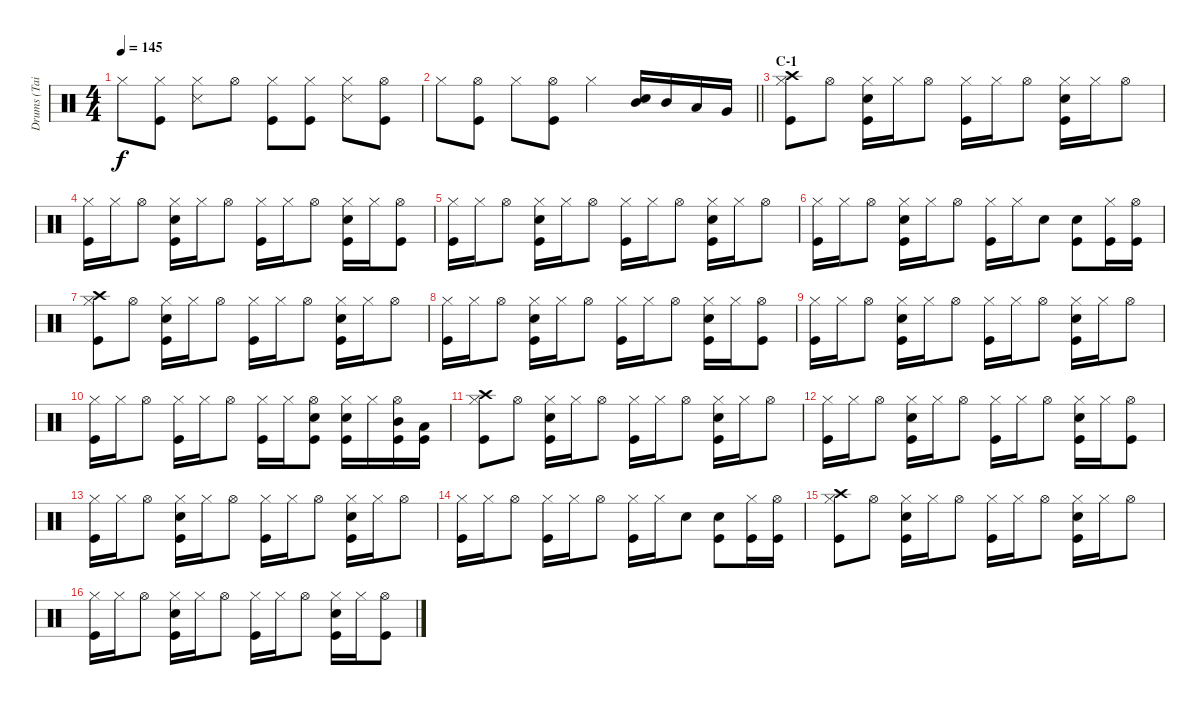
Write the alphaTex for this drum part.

\track ("Drums (Tainaka Ritsu)" "Drums (Tai") {instrument percussion}
\staff {score}
\articulation defaults
\ts (4 4)
\tempo 145
\clef neutral
\ks c "Hi-Hat (closed)".8{dy f}
("Hi-Hat (closed)" "Kick (hit)").8 ("Hi-Hat (closed)" "Snare (side stick) 3").8 "Hi-Hat (open)".8 ("Hi-Hat (closed)" "Kick (hit)").8 ("Hi-Hat (closed)" "Kick (hit)").8 ("Hi-Hat (closed)" "Snare (side stick) 3").8 ("Hi-Hat (open)" "Kick (hit)").8 |
\barLineRight lightlight "Hi-Hat (closed)".8
("Hi-Hat (open)" "Kick (hit)").8 "Hi-Hat (closed)".8 ("Hi-Hat (open)" "Kick (hit)").8 "Hi-Hat (closed)".4 ("Snare (hit) 2" "Mid Tom (hit)").16 "Mid Tom (hit)".16 "Low Tom (hit)".16 "Very Low Tom (hit)".16 |
\section ("" "C-1")
("Crash high (hit)" "Hi-Hat (closed)" "Kick (hit)").8 "Hi-Hat (open)".8 ("Hi-Hat (closed)" "Snare (hit) 2" "Kick (hit)").16 "Hi-Hat (closed)".16 "Hi-Hat (open)".8 ("Hi-Hat (closed)" "Kick (hit)").16 "Hi-Hat (closed)".16 "Hi-Hat (open)".8 ("Hi-Hat (closed)" "Snare (hit) 2" "Kick (hit)").16 "Hi-Hat (closed)".16 "Hi-Hat (open)".8 |
("Hi-Hat (closed)" "Kick (hit)").16 "Hi-Hat (closed)".16 "Hi-Hat (open)".8 ("Hi-Hat (closed)" "Snare (hit) 2" "Kick (hit)").16 "Hi-Hat (closed)".16 "Hi-Hat (open)".8 ("Hi-Hat (closed)" "Kick (hit)").16 "Hi-Hat (closed)".16 "Hi-Hat (open)".8 ("Hi-Hat (closed)" "Snare (hit) 2" "Kick (hit)").16 "Hi-Hat (closed)".16 ("Hi-Hat (open)" "Kick (hit)").8 |
("Hi-Hat (closed)" "Kick (hit)").16 "Hi-Hat (closed)".16 "Hi-Hat (open)".8 ("Hi-Hat (closed)" "Snare (hit) 2" "Kick (hit)").16 "Hi-Hat (closed)".16 "Hi-Hat (open)".8 ("Hi-Hat (closed)" "Kick (hit)").16 "Hi-Hat (closed)".16 "Hi-Hat (open)".8 ("Hi-Hat (closed)" "Snare (hit) 2" "Kick (hit)").16 "Hi-Hat (closed)".16 "Hi-Hat (open)".8 |
("Hi-Hat (closed)" "Kick (hit)").16 "Hi-Hat (closed)".16 "Hi-Hat (open)".8 ("Hi-Hat (closed)" "Snare (hit) 2" "Kick (hit)").16 "Hi-Hat (closed)".16 "Hi-Hat (open)".8 ("Hi-Hat (closed)" "Kick (hit)").16 "Hi-Hat (closed)".16 "Snare (hit) 2".8 ("Snare (hit) 2" "Kick (hit)").8 ("Hi-Hat (closed)" "Kick (hit)").16 ("Hi-Hat (open)" "Kick (hit)").16 |
("Crash high (hit)" "Hi-Hat (closed)" "Kick (hit)").8 "Hi-Hat (open)".8 ("Hi-Hat (closed)" "Snare (hit) 2" "Kick (hit)").16 "Hi-Hat (closed)".16 "Hi-Hat (open)".8 ("Hi-Hat (closed)" "Kick (hit)").16 "Hi-Hat (closed)".16 "Hi-Hat (open)".8 ("Hi-Hat (closed)" "Snare (hit) 2" "Kick (hit)").16 "Hi-Hat (closed)".16 "Hi-Hat (open)".8 |
("Hi-Hat (closed)" "Kick (hit)").16 "Hi-Hat (closed)".16 "Hi-Hat (open)".8 ("Hi-Hat (closed)" "Snare (hit) 2" "Kick (hit)").16 "Hi-Hat (closed)".16 "Hi-Hat (open)".8 ("Hi-Hat (closed)" "Kick (hit)").16 "Hi-Hat (closed)".16 "Hi-Hat (open)".8 ("Hi-Hat (closed)" "Snare (hit) 2" "Kick (hit)").16 "Hi-Hat (closed)".16 ("Hi-Hat (open)" "Kick (hit)").8 |
("Hi-Hat (closed)" "Kick (hit)").16 "Hi-Hat (closed)".16 "Hi-Hat (open)".8 ("Hi-Hat (closed)" "Snare (hit) 2" "Kick (hit)").16 "Hi-Hat (closed)".16 "Hi-Hat (open)".8 ("Hi-Hat (closed)" "Kick (hit)").16 "Hi-Hat (closed)".16 "Hi-Hat (open)".8 ("Hi-Hat (closed)" "Snare (hit) 2" "Kick (hit)").16 "Hi-Hat (closed)".16 "Hi-Hat (open)".8 |
("Hi-Hat (closed)" "Kick (hit)").16 "Hi-Hat (closed)".16 "Hi-Hat (open)".8 ("Hi-Hat (closed)" "Kick (hit)").16 "Hi-Hat (closed)".16 "Hi-Hat (open)".8 ("Hi-Hat (closed)" "Kick (hit)").16 "Hi-Hat (closed)".16 ("Hi-Hat (open)" "Snare (hit) 2" "Kick (hit)").8 ("Hi-Hat (closed)" "Snare (hit) 2" "Kick (hit)").16 "Hi-Hat (closed)".16 ("Hi-Hat (open)" "Mid Tom (hit)" "Kick (hit)").16 ("Low Tom (hit)" "Kick (hit)").16 |
("Crash high (hit)" "Hi-Hat (closed)" "Kick (hit)").8 "Hi-Hat (open)".8 ("Hi-Hat (closed)" "Snare (hit) 2" "Kick (hit)").16 "Hi-Hat (closed)".16 "Hi-Hat (open)".8 ("Hi-Hat (closed)" "Kick (hit)").16 "Hi-Hat (closed)".16 "Hi-Hat (open)".8 ("Hi-Hat (closed)" "Snare (hit) 2" "Kick (hit)").16 "Hi-Hat (closed)".16 "Hi-Hat (open)".8 |
("Hi-Hat (closed)" "Kick (hit)").16 "Hi-Hat (closed)".16 "Hi-Hat (open)".8 ("Hi-Hat (closed)" "Snare (hit) 2" "Kick (hit)").16 "Hi-Hat (closed)".16 "Hi-Hat (open)".8 ("Hi-Hat (closed)" "Kick (hit)").16 "Hi-Hat (closed)".16 "Hi-Hat (open)".8 ("Hi-Hat (closed)" "Snare (hit) 2" "Kick (hit)").16 "Hi-Hat (closed)".16 ("Hi-Hat (open)" "Kick (hit)").8 |
("Hi-Hat (closed)" "Kick (hit)").16 "Hi-Hat (closed)".16 "Hi-Hat (open)".8 ("Hi-Hat (closed)" "Snare (hit) 2" "Kick (hit)").16 "Hi-Hat (closed)".16 "Hi-Hat (open)".8 ("Hi-Hat (closed)" "Kick (hit)").16 "Hi-Hat (closed)".16 "Hi-Hat (open)".8 ("Hi-Hat (closed)" "Snare (hit) 2" "Kick (hit)").16 "Hi-Hat (closed)".16 "Hi-Hat (open)".8 |
("Hi-Hat (closed)" "Kick (hit)").16 "Hi-Hat (closed)".16 "Hi-Hat (open)".8 ("Hi-Hat (closed)" "Kick (hit)").16 "Hi-Hat (closed)".16 "Hi-Hat (open)".8 ("Hi-Hat (closed)" "Kick (hit)").16 "Hi-Hat (closed)".16 "Snare (hit) 2".8 ("Snare (hit) 2" "Kick (hit)").8 ("Hi-Hat (closed)" "Kick (hit)").16 ("Hi-Hat (open)" "Kick (hit)").16 |
("Crash high (hit)" "Hi-Hat (closed)" "Kick (hit)").8 "Hi-Hat (open)".8 ("Hi-Hat (closed)" "Snare (hit) 2" "Kick (hit)").16 "Hi-Hat (closed)".16 "Hi-Hat (open)".8 ("Hi-Hat (closed)" "Kick (hit)").16 "Hi-Hat (closed)".16 "Hi-Hat (open)".8 ("Hi-Hat (closed)" "Snare (hit) 2" "Kick (hit)").16 "Hi-Hat (closed)".16 "Hi-Hat (open)".8 |
("Hi-Hat (closed)" "Kick (hit)").16 "Hi-Hat (closed)".16 "Hi-Hat (open)".8 ("Hi-Hat (closed)" "Snare (hit) 2" "Kick (hit)").16 "Hi-Hat (closed)".16 "Hi-Hat (open)".8 ("Hi-Hat (closed)" "Kick (hit)").16 "Hi-Hat (closed)".16 "Hi-Hat (open)".8 ("Hi-Hat (closed)" "Snare (hit) 2" "Kick (hit)").16 "Hi-Hat (closed)".16 ("Hi-Hat (open)" "Kick (hit)").8
